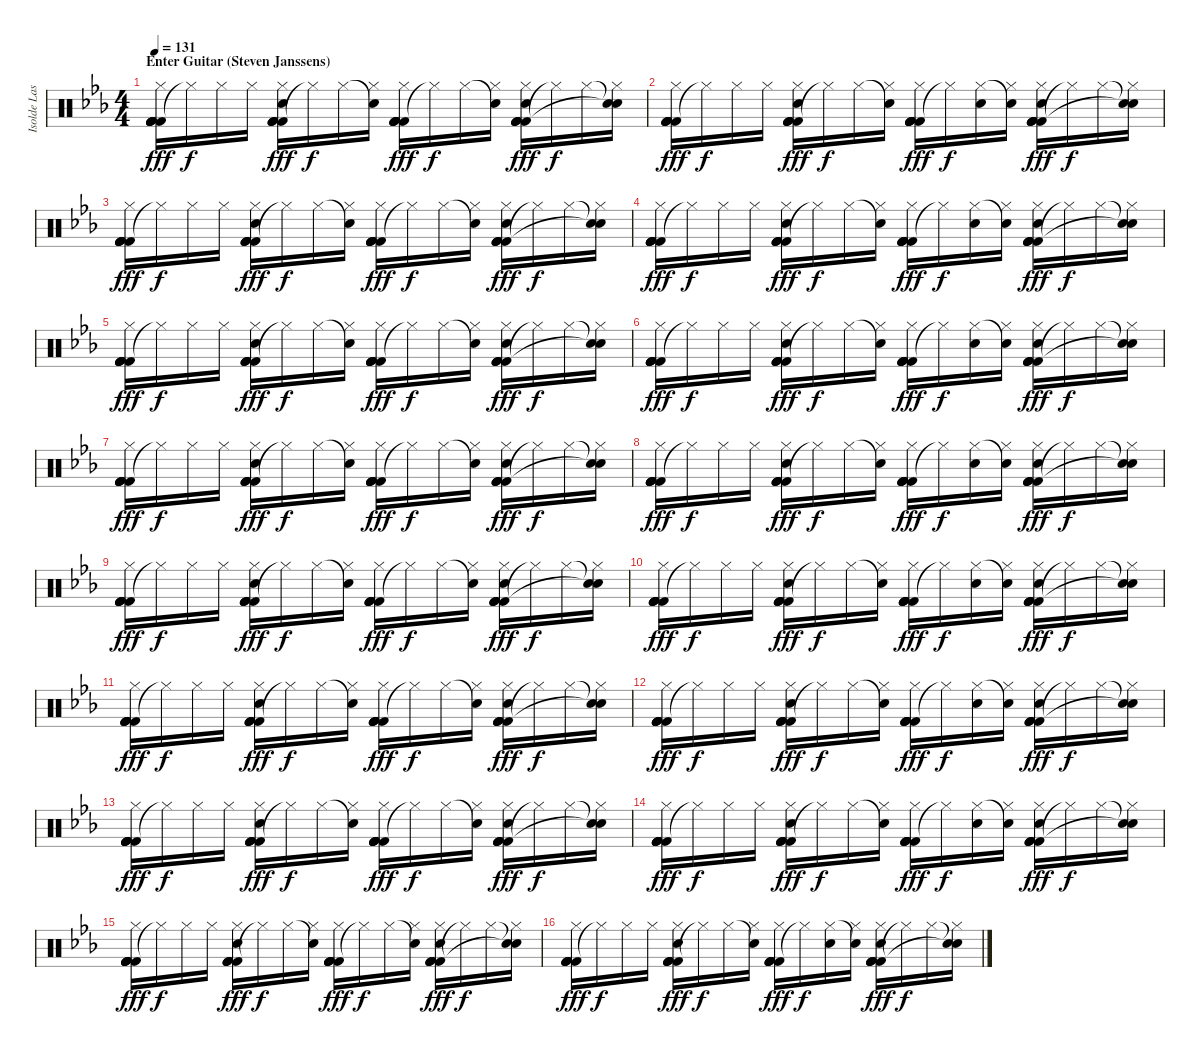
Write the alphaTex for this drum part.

\track ("Isolde Lasoen (Percussion)" "Isolde Las") {instrument percussion}
\staff {score}
\articulation defaults
\ts (4 4)
\section ("" "Enter Guitar (Steven Janssens)")
\tempo 131
\clef neutral
\ks cminor
("Kick (hit) 2" "Kick (hit) 2" "Kick (hit) 2" "Kick (hit) 2" "Hi-Hat (closed)" "Kick (hit) 2").16{dy fff} "Hi-Hat (closed)"{t}.16{dy f} "Hi-Hat (closed)".16 "Hi-Hat (closed)".16 ("Kick (hit) 2" "Kick (hit) 2" "Kick (hit) 2" "Kick (hit) 2" "Hi-Hat (closed)" "Hand Clap (hit)").16{dy fff} "Hi-Hat (closed)"{t}.16{dy f} "Hi-Hat (closed)".16 ("Snare (hit)"{t} "Hi-Hat (closed)").16 ("Kick (hit) 2" "Kick (hit) 2" "Kick (hit) 2" "Kick (hit) 2" "Hi-Hat (closed)" "Kick (hit) 2").16{dy fff} "Hi-Hat (closed)"{t}.16{dy f} "Hi-Hat (closed)".16 ("Snare (hit)"{t} "Hi-Hat (closed)").16 ("Kick (hit) 2" "Kick (hit) 2" "Kick (hit) 2" "Kick (hit) 2" "Hi-Hat (closed)" "Hand Clap (hit)").16{dy fff} "Hi-Hat (closed)"{t}.16{dy f} "Hi-Hat (closed)".16 ("Snare (hit)"{t} "Hi-Hat (closed)" "Snare (hit)"{t}).16 |
("Kick (hit) 2" "Kick (hit) 2" "Kick (hit) 2" "Kick (hit) 2" "Hi-Hat (closed)" "Kick (hit) 2").16{dy fff} "Hi-Hat (closed)"{t}.16{dy f} "Hi-Hat (closed)".16 "Hi-Hat (closed)".16 ("Kick (hit) 2" "Kick (hit) 2" "Kick (hit) 2" "Kick (hit) 2" "Hi-Hat (closed)" "Hand Clap (hit)").16{dy fff} "Hi-Hat (closed)"{t}.16{dy f} "Hi-Hat (closed)".16 ("Snare (hit)"{t} "Hi-Hat (closed)").16 ("Kick (hit) 2" "Kick (hit) 2" "Kick (hit) 2" "Kick (hit) 2" "Hi-Hat (closed)" "Kick (hit) 2").16{dy fff} "Hi-Hat (closed)"{t}.16{dy f} ("Hi-Hat (closed)" "Hand Clap (hit)").16 ("Snare (hit)"{t} "Hi-Hat (closed)").16 ("Kick (hit) 2" "Kick (hit) 2" "Kick (hit) 2" "Kick (hit) 2" "Hi-Hat (closed)" "Hand Clap (hit)").16{dy fff} "Hi-Hat (closed)"{t}.16{dy f} "Hi-Hat (closed)".16 ("Snare (hit)"{t} "Hi-Hat (closed)" "Snare (hit)"{t}).16 |
("Kick (hit) 2" "Kick (hit) 2" "Kick (hit) 2" "Kick (hit) 2" "Hi-Hat (closed)" "Kick (hit) 2").16{dy fff} "Hi-Hat (closed)"{t}.16{dy f} "Hi-Hat (closed)".16 "Hi-Hat (closed)".16 ("Kick (hit) 2" "Kick (hit) 2" "Kick (hit) 2" "Kick (hit) 2" "Hi-Hat (closed)" "Hand Clap (hit)").16{dy fff} "Hi-Hat (closed)"{t}.16{dy f} "Hi-Hat (closed)".16 ("Snare (hit)"{t} "Hi-Hat (closed)").16 ("Kick (hit) 2" "Kick (hit) 2" "Kick (hit) 2" "Kick (hit) 2" "Hi-Hat (closed)" "Kick (hit) 2").16{dy fff} "Hi-Hat (closed)"{t}.16{dy f} "Hi-Hat (closed)".16 ("Snare (hit)"{t} "Hi-Hat (closed)").16 ("Kick (hit) 2" "Kick (hit) 2" "Kick (hit) 2" "Kick (hit) 2" "Hi-Hat (closed)" "Hand Clap (hit)").16{dy fff} "Hi-Hat (closed)"{t}.16{dy f} "Hi-Hat (closed)".16 ("Snare (hit)"{t} "Hi-Hat (closed)" "Snare (hit)"{t}).16 |
("Kick (hit) 2" "Kick (hit) 2" "Kick (hit) 2" "Kick (hit) 2" "Hi-Hat (closed)" "Kick (hit) 2").16{dy fff} "Hi-Hat (closed)"{t}.16{dy f} "Hi-Hat (closed)".16 "Hi-Hat (closed)".16 ("Kick (hit) 2" "Kick (hit) 2" "Kick (hit) 2" "Kick (hit) 2" "Hi-Hat (closed)" "Hand Clap (hit)").16{dy fff} "Hi-Hat (closed)"{t}.16{dy f} "Hi-Hat (closed)".16 ("Snare (hit)"{t} "Hi-Hat (closed)").16 ("Kick (hit) 2" "Kick (hit) 2" "Kick (hit) 2" "Kick (hit) 2" "Hi-Hat (closed)" "Kick (hit) 2").16{dy fff} "Hi-Hat (closed)"{t}.16{dy f} ("Hi-Hat (closed)" "Hand Clap (hit)").16 ("Snare (hit)"{t} "Hi-Hat (closed)").16 ("Kick (hit) 2" "Kick (hit) 2" "Kick (hit) 2" "Kick (hit) 2" "Hi-Hat (closed)" "Hand Clap (hit)").16{dy fff} "Hi-Hat (closed)"{t}.16{dy f} "Hi-Hat (closed)".16 ("Snare (hit)"{t} "Hi-Hat (closed)" "Snare (hit)"{t}).16 |
("Kick (hit) 2" "Kick (hit) 2" "Kick (hit) 2" "Kick (hit) 2" "Hi-Hat (closed)" "Kick (hit) 2").16{dy fff} "Hi-Hat (closed)"{t}.16{dy f} "Hi-Hat (closed)".16 "Hi-Hat (closed)".16 ("Kick (hit) 2" "Kick (hit) 2" "Kick (hit) 2" "Kick (hit) 2" "Hi-Hat (closed)" "Hand Clap (hit)").16{dy fff} "Hi-Hat (closed)"{t}.16{dy f} "Hi-Hat (closed)".16 ("Snare (hit)"{t} "Hi-Hat (closed)").16 ("Kick (hit) 2" "Kick (hit) 2" "Kick (hit) 2" "Kick (hit) 2" "Hi-Hat (closed)" "Kick (hit) 2").16{dy fff} "Hi-Hat (closed)"{t}.16{dy f} "Hi-Hat (closed)".16 ("Snare (hit)"{t} "Hi-Hat (closed)").16 ("Kick (hit) 2" "Kick (hit) 2" "Kick (hit) 2" "Kick (hit) 2" "Hi-Hat (closed)" "Hand Clap (hit)").16{dy fff} "Hi-Hat (closed)"{t}.16{dy f} "Hi-Hat (closed)".16 ("Snare (hit)"{t} "Hi-Hat (closed)" "Snare (hit)"{t}).16 |
("Kick (hit) 2" "Kick (hit) 2" "Kick (hit) 2" "Kick (hit) 2" "Hi-Hat (closed)" "Kick (hit) 2").16{dy fff} "Hi-Hat (closed)"{t}.16{dy f} "Hi-Hat (closed)".16 "Hi-Hat (closed)".16 ("Kick (hit) 2" "Kick (hit) 2" "Kick (hit) 2" "Kick (hit) 2" "Hi-Hat (closed)" "Hand Clap (hit)").16{dy fff} "Hi-Hat (closed)"{t}.16{dy f} "Hi-Hat (closed)".16 ("Snare (hit)"{t} "Hi-Hat (closed)").16 ("Kick (hit) 2" "Kick (hit) 2" "Kick (hit) 2" "Kick (hit) 2" "Hi-Hat (closed)" "Kick (hit) 2").16{dy fff} "Hi-Hat (closed)"{t}.16{dy f} ("Hi-Hat (closed)" "Hand Clap (hit)").16 ("Snare (hit)"{t} "Hi-Hat (closed)").16 ("Kick (hit) 2" "Kick (hit) 2" "Kick (hit) 2" "Kick (hit) 2" "Hi-Hat (closed)" "Hand Clap (hit)").16{dy fff} "Hi-Hat (closed)"{t}.16{dy f} "Hi-Hat (closed)".16 ("Snare (hit)"{t} "Hi-Hat (closed)" "Snare (hit)"{t}).16 |
("Kick (hit) 2" "Kick (hit) 2" "Kick (hit) 2" "Kick (hit) 2" "Hi-Hat (closed)" "Kick (hit) 2").16{dy fff} "Hi-Hat (closed)"{t}.16{dy f} "Hi-Hat (closed)".16 "Hi-Hat (closed)".16 ("Kick (hit) 2" "Kick (hit) 2" "Kick (hit) 2" "Kick (hit) 2" "Hi-Hat (closed)" "Hand Clap (hit)").16{dy fff} "Hi-Hat (closed)"{t}.16{dy f} "Hi-Hat (closed)".16 ("Snare (hit)"{t} "Hi-Hat (closed)").16 ("Kick (hit) 2" "Kick (hit) 2" "Kick (hit) 2" "Kick (hit) 2" "Hi-Hat (closed)" "Kick (hit) 2").16{dy fff} "Hi-Hat (closed)"{t}.16{dy f} "Hi-Hat (closed)".16 ("Snare (hit)"{t} "Hi-Hat (closed)").16 ("Kick (hit) 2" "Kick (hit) 2" "Kick (hit) 2" "Kick (hit) 2" "Hi-Hat (closed)" "Hand Clap (hit)").16{dy fff} "Hi-Hat (closed)"{t}.16{dy f} "Hi-Hat (closed)".16 ("Snare (hit)"{t} "Hi-Hat (closed)" "Snare (hit)"{t}).16 |
("Kick (hit) 2" "Kick (hit) 2" "Kick (hit) 2" "Kick (hit) 2" "Hi-Hat (closed)" "Kick (hit) 2").16{dy fff} "Hi-Hat (closed)"{t}.16{dy f} "Hi-Hat (closed)".16 "Hi-Hat (closed)".16 ("Kick (hit) 2" "Kick (hit) 2" "Kick (hit) 2" "Kick (hit) 2" "Hi-Hat (closed)" "Hand Clap (hit)").16{dy fff} "Hi-Hat (closed)"{t}.16{dy f} "Hi-Hat (closed)".16 ("Snare (hit)"{t} "Hi-Hat (closed)").16 ("Kick (hit) 2" "Kick (hit) 2" "Kick (hit) 2" "Kick (hit) 2" "Hi-Hat (closed)" "Kick (hit) 2").16{dy fff} "Hi-Hat (closed)"{t}.16{dy f} ("Hi-Hat (closed)" "Hand Clap (hit)").16 ("Snare (hit)"{t} "Hi-Hat (closed)").16 ("Kick (hit) 2" "Kick (hit) 2" "Kick (hit) 2" "Kick (hit) 2" "Hi-Hat (closed)" "Hand Clap (hit)").16{dy fff} "Hi-Hat (closed)"{t}.16{dy f} "Hi-Hat (closed)".16 ("Snare (hit)"{t} "Hi-Hat (closed)" "Snare (hit)"{t}).16 |
("Kick (hit) 2" "Kick (hit) 2" "Kick (hit) 2" "Kick (hit) 2" "Hi-Hat (closed)" "Kick (hit) 2").16{dy fff} "Hi-Hat (closed)"{t}.16{dy f} "Hi-Hat (closed)".16 "Hi-Hat (closed)".16 ("Kick (hit) 2" "Kick (hit) 2" "Kick (hit) 2" "Kick (hit) 2" "Hi-Hat (closed)" "Hand Clap (hit)").16{dy fff} "Hi-Hat (closed)"{t}.16{dy f} "Hi-Hat (closed)".16 ("Snare (hit)"{t} "Hi-Hat (closed)").16 ("Kick (hit) 2" "Kick (hit) 2" "Kick (hit) 2" "Kick (hit) 2" "Hi-Hat (closed)" "Kick (hit) 2").16{dy fff} "Hi-Hat (closed)"{t}.16{dy f} "Hi-Hat (closed)".16 ("Snare (hit)"{t} "Hi-Hat (closed)").16 ("Kick (hit) 2" "Kick (hit) 2" "Kick (hit) 2" "Kick (hit) 2" "Hi-Hat (closed)" "Hand Clap (hit)").16{dy fff} "Hi-Hat (closed)"{t}.16{dy f} "Hi-Hat (closed)".16 ("Snare (hit)"{t} "Hi-Hat (closed)" "Snare (hit)"{t}).16 |
("Kick (hit) 2" "Kick (hit) 2" "Kick (hit) 2" "Kick (hit) 2" "Hi-Hat (closed)" "Kick (hit) 2").16{dy fff} "Hi-Hat (closed)"{t}.16{dy f} "Hi-Hat (closed)".16 "Hi-Hat (closed)".16 ("Kick (hit) 2" "Kick (hit) 2" "Kick (hit) 2" "Kick (hit) 2" "Hi-Hat (closed)" "Hand Clap (hit)").16{dy fff} "Hi-Hat (closed)"{t}.16{dy f} "Hi-Hat (closed)".16 ("Snare (hit)"{t} "Hi-Hat (closed)").16 ("Kick (hit) 2" "Kick (hit) 2" "Kick (hit) 2" "Kick (hit) 2" "Hi-Hat (closed)" "Kick (hit) 2").16{dy fff} "Hi-Hat (closed)"{t}.16{dy f} ("Hi-Hat (closed)" "Hand Clap (hit)").16 ("Snare (hit)"{t} "Hi-Hat (closed)").16 ("Kick (hit) 2" "Kick (hit) 2" "Kick (hit) 2" "Kick (hit) 2" "Hi-Hat (closed)" "Hand Clap (hit)").16{dy fff} "Hi-Hat (closed)"{t}.16{dy f} "Hi-Hat (closed)".16 ("Snare (hit)"{t} "Hi-Hat (closed)" "Snare (hit)"{t}).16 |
("Kick (hit) 2" "Kick (hit) 2" "Kick (hit) 2" "Kick (hit) 2" "Hi-Hat (closed)" "Kick (hit) 2").16{dy fff} "Hi-Hat (closed)"{t}.16{dy f} "Hi-Hat (closed)".16 "Hi-Hat (closed)".16 ("Kick (hit) 2" "Kick (hit) 2" "Kick (hit) 2" "Kick (hit) 2" "Hi-Hat (closed)" "Hand Clap (hit)").16{dy fff} "Hi-Hat (closed)"{t}.16{dy f} "Hi-Hat (closed)".16 ("Snare (hit)"{t} "Hi-Hat (closed)").16 ("Kick (hit) 2" "Kick (hit) 2" "Kick (hit) 2" "Kick (hit) 2" "Hi-Hat (closed)" "Kick (hit) 2").16{dy fff} "Hi-Hat (closed)"{t}.16{dy f} "Hi-Hat (closed)".16 ("Snare (hit)"{t} "Hi-Hat (closed)").16 ("Kick (hit) 2" "Kick (hit) 2" "Kick (hit) 2" "Kick (hit) 2" "Hi-Hat (closed)" "Hand Clap (hit)").16{dy fff} "Hi-Hat (closed)"{t}.16{dy f} "Hi-Hat (closed)".16 ("Snare (hit)"{t} "Hi-Hat (closed)" "Snare (hit)"{t}).16 |
("Kick (hit) 2" "Kick (hit) 2" "Kick (hit) 2" "Kick (hit) 2" "Hi-Hat (closed)" "Kick (hit) 2").16{dy fff} "Hi-Hat (closed)"{t}.16{dy f} "Hi-Hat (closed)".16 "Hi-Hat (closed)".16 ("Kick (hit) 2" "Kick (hit) 2" "Kick (hit) 2" "Kick (hit) 2" "Hi-Hat (closed)" "Hand Clap (hit)").16{dy fff} "Hi-Hat (closed)"{t}.16{dy f} "Hi-Hat (closed)".16 ("Snare (hit)"{t} "Hi-Hat (closed)").16 ("Kick (hit) 2" "Kick (hit) 2" "Kick (hit) 2" "Kick (hit) 2" "Hi-Hat (closed)" "Kick (hit) 2").16{dy fff} "Hi-Hat (closed)"{t}.16{dy f} ("Hi-Hat (closed)" "Hand Clap (hit)").16 ("Snare (hit)"{t} "Hi-Hat (closed)").16 ("Kick (hit) 2" "Kick (hit) 2" "Kick (hit) 2" "Kick (hit) 2" "Hi-Hat (closed)" "Hand Clap (hit)").16{dy fff} "Hi-Hat (closed)"{t}.16{dy f} "Hi-Hat (closed)".16 ("Snare (hit)"{t} "Hi-Hat (closed)" "Snare (hit)"{t}).16 |
("Kick (hit) 2" "Kick (hit) 2" "Kick (hit) 2" "Kick (hit) 2" "Hi-Hat (closed)" "Kick (hit) 2").16{dy fff} "Hi-Hat (closed)"{t}.16{dy f} "Hi-Hat (closed)".16 "Hi-Hat (closed)".16 ("Kick (hit) 2" "Kick (hit) 2" "Kick (hit) 2" "Kick (hit) 2" "Hi-Hat (closed)" "Hand Clap (hit)").16{dy fff} "Hi-Hat (closed)"{t}.16{dy f} "Hi-Hat (closed)".16 ("Snare (hit)"{t} "Hi-Hat (closed)").16 ("Kick (hit) 2" "Kick (hit) 2" "Kick (hit) 2" "Kick (hit) 2" "Hi-Hat (closed)" "Kick (hit) 2").16{dy fff} "Hi-Hat (closed)"{t}.16{dy f} "Hi-Hat (closed)".16 ("Snare (hit)"{t} "Hi-Hat (closed)").16 ("Kick (hit) 2" "Kick (hit) 2" "Kick (hit) 2" "Kick (hit) 2" "Hi-Hat (closed)" "Hand Clap (hit)").16{dy fff} "Hi-Hat (closed)"{t}.16{dy f} "Hi-Hat (closed)".16 ("Snare (hit)"{t} "Hi-Hat (closed)" "Snare (hit)"{t}).16 |
("Kick (hit) 2" "Kick (hit) 2" "Kick (hit) 2" "Kick (hit) 2" "Hi-Hat (closed)" "Kick (hit) 2").16{dy fff} "Hi-Hat (closed)"{t}.16{dy f} "Hi-Hat (closed)".16 "Hi-Hat (closed)".16 ("Kick (hit) 2" "Kick (hit) 2" "Kick (hit) 2" "Kick (hit) 2" "Hi-Hat (closed)" "Hand Clap (hit)").16{dy fff} "Hi-Hat (closed)"{t}.16{dy f} "Hi-Hat (closed)".16 ("Snare (hit)"{t} "Hi-Hat (closed)").16 ("Kick (hit) 2" "Kick (hit) 2" "Kick (hit) 2" "Kick (hit) 2" "Hi-Hat (closed)" "Kick (hit) 2").16{dy fff} "Hi-Hat (closed)"{t}.16{dy f} ("Hi-Hat (closed)" "Hand Clap (hit)").16 ("Snare (hit)"{t} "Hi-Hat (closed)").16 ("Kick (hit) 2" "Kick (hit) 2" "Kick (hit) 2" "Kick (hit) 2" "Hi-Hat (closed)" "Hand Clap (hit)").16{dy fff} "Hi-Hat (closed)"{t}.16{dy f} "Hi-Hat (closed)".16 ("Snare (hit)"{t} "Hi-Hat (closed)" "Snare (hit)"{t}).16 |
("Kick (hit) 2" "Kick (hit) 2" "Kick (hit) 2" "Kick (hit) 2" "Hi-Hat (closed)" "Kick (hit) 2").16{dy fff} "Hi-Hat (closed)"{t}.16{dy f} "Hi-Hat (closed)".16 "Hi-Hat (closed)".16 ("Kick (hit) 2" "Kick (hit) 2" "Kick (hit) 2" "Kick (hit) 2" "Hi-Hat (closed)" "Hand Clap (hit)").16{dy fff} "Hi-Hat (closed)"{t}.16{dy f} "Hi-Hat (closed)".16 ("Snare (hit)"{t} "Hi-Hat (closed)").16 ("Kick (hit) 2" "Kick (hit) 2" "Kick (hit) 2" "Kick (hit) 2" "Hi-Hat (closed)" "Kick (hit) 2").16{dy fff} "Hi-Hat (closed)"{t}.16{dy f} "Hi-Hat (closed)".16 ("Snare (hit)"{t} "Hi-Hat (closed)").16 ("Kick (hit) 2" "Kick (hit) 2" "Kick (hit) 2" "Kick (hit) 2" "Hi-Hat (closed)" "Hand Clap (hit)").16{dy fff} "Hi-Hat (closed)"{t}.16{dy f} "Hi-Hat (closed)".16 ("Snare (hit)"{t} "Hi-Hat (closed)" "Snare (hit)"{t}).16 |
("Kick (hit) 2" "Kick (hit) 2" "Kick (hit) 2" "Kick (hit) 2" "Hi-Hat (closed)" "Kick (hit) 2").16{dy fff} "Hi-Hat (closed)"{t}.16{dy f} "Hi-Hat (closed)".16 "Hi-Hat (closed)".16 ("Kick (hit) 2" "Kick (hit) 2" "Kick (hit) 2" "Kick (hit) 2" "Hi-Hat (closed)" "Hand Clap (hit)").16{dy fff} "Hi-Hat (closed)"{t}.16{dy f} "Hi-Hat (closed)".16 ("Snare (hit)"{t} "Hi-Hat (closed)").16 ("Kick (hit) 2" "Kick (hit) 2" "Kick (hit) 2" "Kick (hit) 2" "Hi-Hat (closed)" "Kick (hit) 2").16{dy fff} "Hi-Hat (closed)"{t}.16{dy f} ("Hi-Hat (closed)" "Hand Clap (hit)").16 ("Snare (hit)"{t} "Hi-Hat (closed)").16 ("Kick (hit) 2" "Kick (hit) 2" "Kick (hit) 2" "Kick (hit) 2" "Hi-Hat (closed)" "Hand Clap (hit)").16{dy fff} "Hi-Hat (closed)"{t}.16{dy f} "Hi-Hat (closed)".16 ("Snare (hit)"{t} "Hi-Hat (closed)" "Snare (hit)"{t}).16
